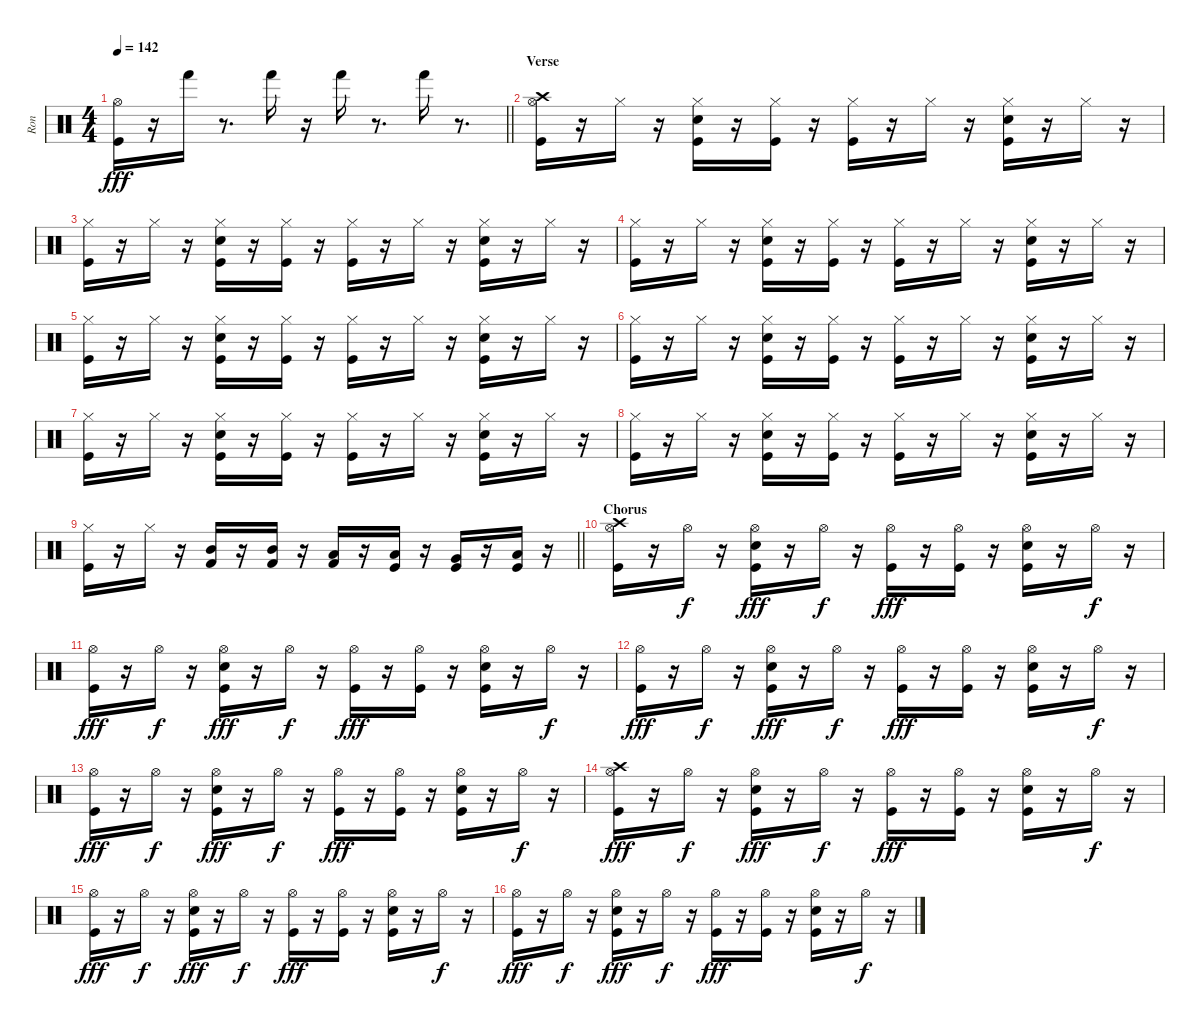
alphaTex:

\track ("Ron" "Ron") {instrument percussion}
\staff {score}
\articulation defaults
\ts (4 4)
\tempo 142
\clef neutral
\barLineRight lightlight
\ks c
("Kick (hit)" "Hi-Hat (open)").16{dy fff} r.16 "Hand (hit)".16 r.8{d} "Hand (hit)".16 r.16 "Hand (hit)".16 r.8{d} "Hand (hit)".16 r.8{d} |
\section ("" "Verse ")
("Crash high (hit)" "Hi-Hat (open)" "Kick (hit)").16 r.16 "Hi-Hat (closed)".16 r.16 ("Snare (hit) 2" "Kick (hit)" "Hi-Hat (closed)").16 r.16 ("Kick (hit)" "Hi-Hat (closed)").16 r.16 ("Kick (hit)" "Hi-Hat (closed)").16 r.16 "Hi-Hat (closed)".16 r.16 ("Snare (hit) 2" "Kick (hit)" "Hi-Hat (closed)").16 r.16 "Hi-Hat (closed)".16 r.16 |
("Kick (hit)" "Hi-Hat (closed)").16 r.16 "Hi-Hat (closed)".16 r.16 ("Snare (hit) 2" "Kick (hit)" "Hi-Hat (closed)").16 r.16 ("Kick (hit)" "Hi-Hat (closed)").16 r.16 ("Kick (hit)" "Hi-Hat (closed)").16 r.16 "Hi-Hat (closed)".16 r.16 ("Snare (hit) 2" "Kick (hit)" "Hi-Hat (closed)").16 r.16 "Hi-Hat (closed)".16 r.16 |
("Hi-Hat (closed)" "Kick (hit)").16 r.16 "Hi-Hat (closed)".16 r.16 ("Snare (hit) 2" "Kick (hit)" "Hi-Hat (closed)").16 r.16 ("Kick (hit)" "Hi-Hat (closed)").16 r.16 ("Kick (hit)" "Hi-Hat (closed)").16 r.16 "Hi-Hat (closed)".16 r.16 ("Snare (hit) 2" "Kick (hit)" "Hi-Hat (closed)").16 r.16 "Hi-Hat (closed)".16 r.16 |
("Hi-Hat (closed)" "Kick (hit)").16 r.16 "Hi-Hat (closed)".16 r.16 ("Snare (hit) 2" "Kick (hit)" "Hi-Hat (closed)").16 r.16 ("Kick (hit)" "Hi-Hat (closed)").16 r.16 ("Kick (hit)" "Hi-Hat (closed)").16 r.16 "Hi-Hat (closed)".16 r.16 ("Snare (hit) 2" "Kick (hit)" "Hi-Hat (closed)").16 r.16 "Hi-Hat (closed)".16 r.16 |
("Hi-Hat (closed)" "Kick (hit)").16 r.16 "Hi-Hat (closed)".16 r.16 ("Snare (hit) 2" "Kick (hit)" "Hi-Hat (closed)").16 r.16 ("Kick (hit)" "Hi-Hat (closed)").16 r.16 ("Kick (hit)" "Hi-Hat (closed)").16 r.16 "Hi-Hat (closed)".16 r.16 ("Snare (hit) 2" "Kick (hit)" "Hi-Hat (closed)").16 r.16 "Hi-Hat (closed)".16 r.16 |
("Hi-Hat (closed)" "Kick (hit)").16 r.16 "Hi-Hat (closed)".16 r.16 ("Snare (hit) 2" "Kick (hit)" "Hi-Hat (closed)").16 r.16 ("Kick (hit)" "Hi-Hat (closed)").16 r.16 ("Kick (hit)" "Hi-Hat (closed)").16 r.16 "Hi-Hat (closed)".16 r.16 ("Snare (hit) 2" "Kick (hit)" "Hi-Hat (closed)").16 r.16 "Hi-Hat (closed)".16 r.16 |
("Hi-Hat (closed)" "Kick (hit)").16 r.16 "Hi-Hat (closed)".16 r.16 ("Snare (hit) 2" "Kick (hit)" "Hi-Hat (closed)").16 r.16 ("Kick (hit)" "Hi-Hat (closed)").16 r.16 ("Kick (hit)" "Hi-Hat (closed)").16 r.16 "Hi-Hat (closed)".16 r.16 ("Snare (hit) 2" "Kick (hit)" "Hi-Hat (closed)").16 r.16 "Hi-Hat (closed)".16 r.16 |
\barLineRight lightlight
("Hi-Hat (closed)" "Kick (hit)").16 r.16 "Hi-Hat (closed)".16 r.16 ("Kick (hit) 2" "Mid Tom (hit)").16 r.16 ("Kick (hit) 2" "Mid Tom (hit)").16 r.16 ("Kick (hit) 2" "Low Tom (hit)").16 r.16 ("Kick (hit)" "Low Tom (hit)").16 r.16 ("Kick (hit)" "Very Low Tom (hit)").16 r.16 ("Kick (hit)" "Low Floor Tom (hit)").16 r.16 |
\section ("" "Chorus ")
("Crash high (hit)" "Hi-Hat (open)" "Kick (hit)").16 r.16 "Hi-Hat (open)".16{dy f} r.16 ("Snare (hit) 2" "Kick (hit)" "Hi-Hat (open)").16{dy fff} r.16 "Hi-Hat (open)".16{dy f} r.16 ("Kick (hit)" "Hi-Hat (open)").16{dy fff} r.16 ("Kick (hit)" "Hi-Hat (open)").16 r.16 ("Kick (hit)" "Snare (hit) 2" "Hi-Hat (open)").16 r.16 "Hi-Hat (open)".16{dy f} r.16 |
("Kick (hit)" "Hi-Hat (open)").16{dy fff} r.16 "Hi-Hat (open)".16{dy f} r.16 ("Snare (hit) 2" "Kick (hit)" "Hi-Hat (open)").16{dy fff} r.16 "Hi-Hat (open)".16{dy f} r.16 ("Kick (hit)" "Hi-Hat (open)").16{dy fff} r.16 ("Kick (hit)" "Hi-Hat (open)").16 r.16 ("Kick (hit)" "Snare (hit) 2" "Hi-Hat (open)").16 r.16 "Hi-Hat (open)".16{dy f} r.16 |
("Hi-Hat (open)" "Kick (hit)").16{dy fff} r.16 "Hi-Hat (open)".16{dy f} r.16 ("Snare (hit) 2" "Kick (hit)" "Hi-Hat (open)").16{dy fff} r.16 "Hi-Hat (open)".16{dy f} r.16 ("Kick (hit)" "Hi-Hat (open)").16{dy fff} r.16 ("Kick (hit)" "Hi-Hat (open)").16 r.16 ("Kick (hit)" "Snare (hit) 2" "Hi-Hat (open)").16 r.16 "Hi-Hat (open)".16{dy f} r.16 |
("Hi-Hat (open)" "Kick (hit)").16{dy fff} r.16 "Hi-Hat (open)".16{dy f} r.16 ("Snare (hit) 2" "Kick (hit)" "Hi-Hat (open)").16{dy fff} r.16 "Hi-Hat (open)".16{dy f} r.16 ("Kick (hit)" "Hi-Hat (open)").16{dy fff} r.16 ("Kick (hit)" "Hi-Hat (open)").16 r.16 ("Kick (hit)" "Snare (hit) 2" "Hi-Hat (open)").16 r.16 "Hi-Hat (open)".16{dy f} r.16 |
("Hi-Hat (open)" "Kick (hit)" "Crash high (hit)").16{dy fff} r.16 "Hi-Hat (open)".16{dy f} r.16 ("Snare (hit) 2" "Kick (hit)" "Hi-Hat (open)").16{dy fff} r.16 "Hi-Hat (open)".16{dy f} r.16 ("Kick (hit)" "Hi-Hat (open)").16{dy fff} r.16 ("Kick (hit)" "Hi-Hat (open)").16 r.16 ("Kick (hit)" "Snare (hit) 2" "Hi-Hat (open)").16 r.16 "Hi-Hat (open)".16{dy f} r.16 |
("Hi-Hat (open)" "Kick (hit)").16{dy fff} r.16 "Hi-Hat (open)".16{dy f} r.16 ("Snare (hit) 2" "Kick (hit)" "Hi-Hat (open)").16{dy fff} r.16 "Hi-Hat (open)".16{dy f} r.16 ("Kick (hit)" "Hi-Hat (open)").16{dy fff} r.16 ("Kick (hit)" "Hi-Hat (open)").16 r.16 ("Kick (hit)" "Snare (hit) 2" "Hi-Hat (open)").16 r.16 "Hi-Hat (open)".16{dy f} r.16 |
("Hi-Hat (open)" "Kick (hit)").16{dy fff} r.16 "Hi-Hat (open)".16{dy f} r.16 ("Snare (hit) 2" "Kick (hit)" "Hi-Hat (open)").16{dy fff} r.16 "Hi-Hat (open)".16{dy f} r.16 ("Kick (hit)" "Hi-Hat (open)").16{dy fff} r.16 ("Kick (hit)" "Hi-Hat (open)").16 r.16 ("Kick (hit)" "Snare (hit) 2" "Hi-Hat (open)").16 r.16 "Hi-Hat (open)".16{dy f} r.16
